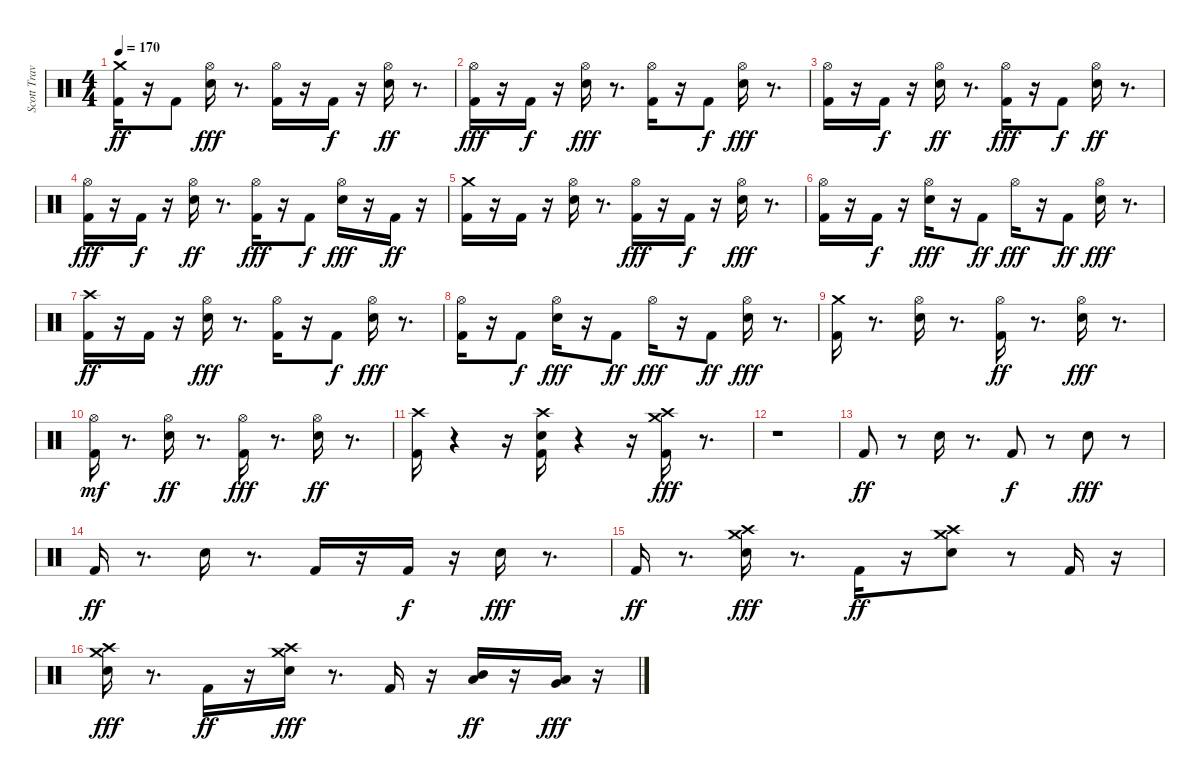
\track ("Scott Travis" "Scott Trav") {instrument percussion}
\staff {score}
\articulation defaults
\ts (4 4)
\tempo 170
\clef neutral
\ks c
("Kick (hit) 2" "Crash medium (hit)").16{dy ff} r.16 "Kick (hit) 2".8 ("Hi-Hat (open)" "Snare (hit) 2").16{dy fff} r.8{d} ("Kick (hit) 2" "Hi-Hat (open)").16 r.16 "Kick (hit) 2".16{dy f} r.16 ("Hi-Hat (open)" "Snare (hit) 2").16{dy ff} r.8{d} |
("Hi-Hat (open)" "Kick (hit) 2").16{dy fff} r.16 "Kick (hit) 2".16{dy f} r.16 ("Snare (hit) 2" "Hi-Hat (open)").16{dy fff} r.8{d} ("Kick (hit) 2" "Hi-Hat (open)").16 r.16 "Kick (hit) 2".8{dy f} ("Snare (hit) 2" "Hi-Hat (open)").16{dy fff} r.8{d} |
("Kick (hit) 2" "Hi-Hat (open)").16 r.16 "Kick (hit) 2".16{dy f} r.16 ("Hi-Hat (open)" "Snare (hit) 2").16{dy ff} r.8{d} ("Kick (hit) 2" "Hi-Hat (open)").16{dy fff} r.16 "Kick (hit) 2".8{dy f} ("Hi-Hat (open)" "Snare (hit) 2").16{dy ff} r.8{d} |
("Kick (hit) 2" "Hi-Hat (open)").16{dy fff} r.16 "Kick (hit) 2".16{dy f} r.16 ("Hi-Hat (open)" "Snare (hit) 2").16{dy ff} r.8{d} ("Kick (hit) 2" "Hi-Hat (open)").16{dy fff} r.16 "Kick (hit) 2".8{dy f} ("Snare (hit) 2" "Hi-Hat (open)").16{dy fff} r.16 "Kick (hit) 2".16{dy ff} r.16 |
("Crash medium (hit)" "Kick (hit) 2").16 r.16 "Kick (hit) 2".16 r.16 ("Snare (hit) 2" "Hi-Hat (open)").16 r.8{d} ("Kick (hit) 2" "Hi-Hat (open)").16{dy fff} r.16 "Kick (hit) 2".16{dy f} r.16 ("Snare (hit) 2" "Hi-Hat (open)").16{dy fff} r.8{d} |
("Kick (hit) 2" "Hi-Hat (open)").16 r.16 "Kick (hit) 2".16{dy f} r.16 ("Snare (hit) 2" "Hi-Hat (open)").16{dy fff} r.16 "Kick (hit) 2".8{dy ff} "Hi-Hat (open)".16{dy fff} r.16 "Kick (hit) 2".8{dy ff} ("Snare (hit) 2" "Hi-Hat (open)").16{dy fff} r.8{d} |
("Crash high (hit)" "Kick (hit) 2").16{dy ff} r.16 "Kick (hit) 2".16 r.16 ("Hi-Hat (open)" "Snare (hit) 2").16{dy fff} r.8{d} ("Kick (hit) 2" "Hi-Hat (open)").16 r.16 "Kick (hit) 2".8{dy f} ("Snare (hit) 2" "Hi-Hat (open)").16{dy fff} r.8{d} |
("Kick (hit) 2" "Hi-Hat (open)").16 r.16 "Kick (hit) 2".8{dy f} ("Snare (hit) 2" "Hi-Hat (open)").16{dy fff} r.16 "Kick (hit) 2".8{dy ff} "Hi-Hat (open)".16{dy fff} r.16 "Kick (hit) 2".8{dy ff} ("Snare (hit) 2" "Hi-Hat (open)").16{dy fff} r.8{d} |
("Crash medium (hit)" "Kick (hit) 2").16 r.8{d} ("Snare (hit) 2" "Hi-Hat (open)").16 r.8{d} ("Hi-Hat (open)" "Kick (hit) 2").16{dy ff} r.8{d} ("Hi-Hat (open)" "Snare (hit) 2").16{dy fff} r.8{d} |
("Hi-Hat (open)" "Kick (hit) 2").16{dy mf} r.8{d} ("Hi-Hat (open)" "Snare (hit) 2").16{dy ff} r.8{d} ("Kick (hit) 2" "Hi-Hat (open)").16{dy fff} r.8{d} ("Hi-Hat (open)" "Snare (hit) 2").16{dy ff} r.8{d} |
("Crash high (hit)" "Kick (hit) 2").16 r.4 r.16 ("Crash high (hit)" "Kick (hit) 2" "Snare (hit) 2").16 r.4 r.16 ("Crash medium (hit)" "Kick (hit) 2" "Crash high (hit)").16{dy fff} r.8{d} |
r.1 |
"Kick (hit) 2".8{dy ff} r.8 "Snare (hit) 2".16 r.8{d} "Kick (hit) 2".8{dy f} r.8 "Snare (hit) 2".8{dy fff} r.8 |
"Kick (hit) 2".16{dy ff} r.8{d} "Snare (hit) 2".16 r.8{d} "Kick (hit) 2".16 r.16 "Kick (hit) 2".16{dy f} r.16 "Snare (hit) 2".16{dy fff} r.8{d} |
"Kick (hit) 2".16{dy ff} r.8{d} ("Snare (hit) 2" "Crash high (hit)" "Crash medium (hit)").16{dy fff} r.8{d} "Kick (hit) 2".16{dy ff} r.16 ("Snare (hit) 2" "Crash high (hit)" "Crash medium (hit)").8 r.8 "Kick (hit) 2".16 r.16 |
("Snare (hit) 2" "Crash high (hit)" "Crash medium (hit)").16{dy fff} r.8{d} "Kick (hit) 2".16{dy ff} r.16 ("Snare (hit) 2" "Crash medium (hit)" "Crash high (hit)").16{dy fff} r.8{d} "Kick (hit) 2".16 r.16 ("Mid Tom (hit)" "Low Tom (hit)").16{dy ff} r.16 ("Very Low Tom (hit)" "Low Tom (hit)").16{dy fff} r.16
